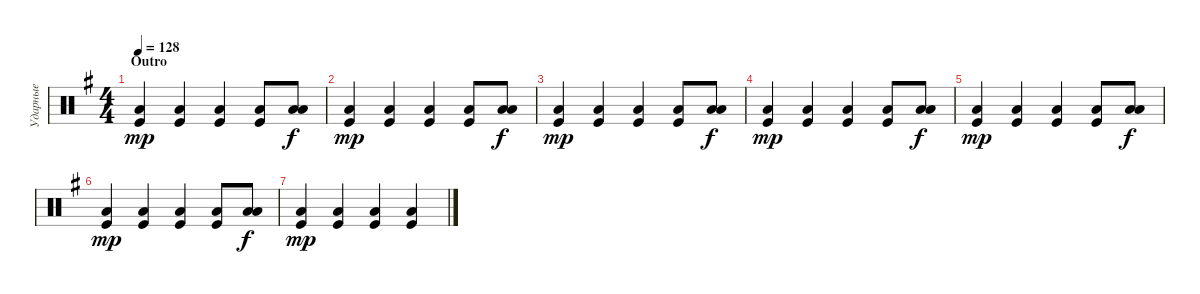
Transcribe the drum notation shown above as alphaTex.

\track ("Ударные" "Ударные") {instrument percussion}
\staff {score}
\articulation defaults
\ts (4 4)
\section ("" "Outro")
\tempo 128
\clef neutral
\ks eminor
("Low Floor Tom (hit)" "Kick (hit)").4{bd 120 dy mp} ("Kick (hit)" "Low Floor Tom (hit)").4{bd 240} ("Kick (hit)" "Low Floor Tom (hit)").4{bd 240} ("Kick (hit)" "Low Floor Tom (hit)").8{bd 240} ("Low Tom (hit)" "Low Floor Tom (hit)").8{bd 240 dy f} |
("Low Floor Tom (hit)" "Kick (hit)").4{bd 120 dy mp} ("Kick (hit)" "Low Floor Tom (hit)").4{bd 240} ("Kick (hit)" "Low Floor Tom (hit)").4{bd 240} ("Kick (hit)" "Low Floor Tom (hit)").8{bd 240} ("Low Tom (hit)" "Low Floor Tom (hit)").8{bd 240 dy f} |
("Low Floor Tom (hit)" "Kick (hit)").4{bd 120 dy mp} ("Kick (hit)" "Low Floor Tom (hit)").4{bd 240} ("Kick (hit)" "Low Floor Tom (hit)").4{bd 240} ("Kick (hit)" "Low Floor Tom (hit)").8{bd 240} ("Low Tom (hit)" "Low Floor Tom (hit)").8{bd 240 dy f} |
("Low Floor Tom (hit)" "Kick (hit)").4{bd 120 dy mp} ("Kick (hit)" "Low Floor Tom (hit)").4{bd 240} ("Kick (hit)" "Low Floor Tom (hit)").4{bd 240} ("Kick (hit)" "Low Floor Tom (hit)").8{bd 240} ("Low Tom (hit)" "Low Floor Tom (hit)").8{bd 240 dy f} |
("Low Floor Tom (hit)" "Kick (hit)").4{bd 120 dy mp} ("Kick (hit)" "Low Floor Tom (hit)").4{bd 240} ("Kick (hit)" "Low Floor Tom (hit)").4{bd 240} ("Kick (hit)" "Low Floor Tom (hit)").8{bd 240} ("Low Tom (hit)" "Low Floor Tom (hit)").8{bd 240 dy f} |
("Low Floor Tom (hit)" "Kick (hit)").4{bd 120 dy mp} ("Kick (hit)" "Low Floor Tom (hit)").4{bd 240} ("Kick (hit)" "Low Floor Tom (hit)").4{bd 240} ("Kick (hit)" "Low Floor Tom (hit)").8{bd 240} ("Low Tom (hit)" "Low Floor Tom (hit)").8{bd 240 dy f} |
("Low Floor Tom (hit)" "Kick (hit)").4{bd 120 dy mp} ("Kick (hit)" "Low Floor Tom (hit)").4{bd 240} ("Kick (hit)" "Low Floor Tom (hit)").4{bd 240} ("Kick (hit)" "Low Floor Tom (hit)").4{bd 240}
